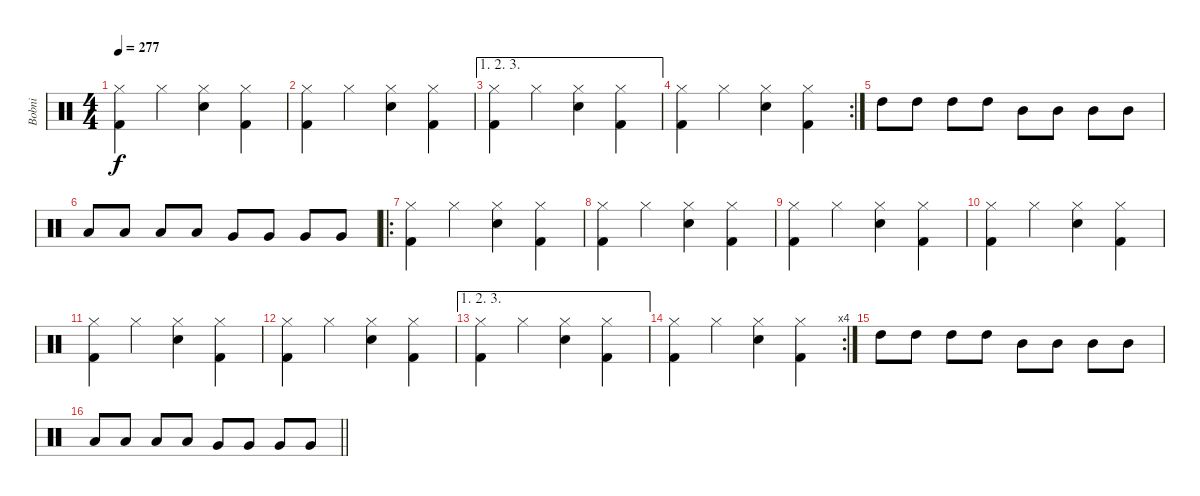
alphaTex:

\track ("Bobni" "Bobni") {instrument percussion}
\staff {score}
\articulation defaults
\ts (4 4)
\tempo 277
\clef neutral
\ks c
("Hi-Hat (closed)" "Kick (hit) 2").4{dy f} "Hi-Hat (closed)".4 ("Hi-Hat (closed)" "Snare (hit) 2").4 ("Hi-Hat (closed)" "Kick (hit) 2").4 |
("Hi-Hat (closed)" "Kick (hit) 2").4 "Hi-Hat (closed)".4 ("Hi-Hat (closed)" "Snare (hit) 2").4 ("Hi-Hat (closed)" "Kick (hit) 2").4 |
\ae (1 2 3)
("Hi-Hat (closed)" "Kick (hit) 2").4 "Hi-Hat (closed)".4 ("Hi-Hat (closed)" "Snare (hit) 2").4 ("Hi-Hat (closed)" "Kick (hit) 2").4 |
\rc 2
("Hi-Hat (closed)" "Kick (hit) 2").4 "Hi-Hat (closed)".4 ("Hi-Hat (closed)" "Snare (hit) 2").4 ("Hi-Hat (closed)" "Kick (hit) 2").4 |
"High Tom (hit)".8 "High Tom (hit)".8 "High Tom (hit)".8 "High Tom (hit)".8 "Mid Tom (hit)".8 "Mid Tom (hit)".8 "Mid Tom (hit)".8 "Mid Tom (hit)".8 |
"Low Tom (hit)".8 "Low Tom (hit)".8 "Low Tom (hit)".8 "Low Tom (hit)".8 "Very Low Tom (hit)".8 "Very Low Tom (hit)".8 "Very Low Tom (hit)".8 "Very Low Tom (hit)".8 |
\ro
("Hi-Hat (closed)" "Kick (hit) 2").4 "Hi-Hat (closed)".4 ("Hi-Hat (closed)" "Snare (hit) 2").4 ("Hi-Hat (closed)" "Kick (hit) 2").4 |
("Hi-Hat (closed)" "Kick (hit) 2").4 "Hi-Hat (closed)".4 ("Hi-Hat (closed)" "Snare (hit) 2").4 ("Hi-Hat (closed)" "Kick (hit) 2").4 |
("Hi-Hat (closed)" "Kick (hit) 2").4 "Hi-Hat (closed)".4 ("Hi-Hat (closed)" "Snare (hit) 2").4 ("Hi-Hat (closed)" "Kick (hit) 2").4 |
("Hi-Hat (closed)" "Kick (hit) 2").4 "Hi-Hat (closed)".4 ("Hi-Hat (closed)" "Snare (hit) 2").4 ("Hi-Hat (closed)" "Kick (hit) 2").4 |
("Hi-Hat (closed)" "Kick (hit) 2").4 "Hi-Hat (closed)".4 ("Hi-Hat (closed)" "Snare (hit) 2").4 ("Hi-Hat (closed)" "Kick (hit) 2").4 |
("Hi-Hat (closed)" "Kick (hit) 2").4 "Hi-Hat (closed)".4 ("Hi-Hat (closed)" "Snare (hit) 2").4 ("Hi-Hat (closed)" "Kick (hit) 2").4 |
\ae (1 2 3)
("Hi-Hat (closed)" "Kick (hit) 2").4 "Hi-Hat (closed)".4 ("Hi-Hat (closed)" "Snare (hit) 2").4 ("Hi-Hat (closed)" "Kick (hit) 2").4 |
\rc 4
("Hi-Hat (closed)" "Kick (hit) 2").4 "Hi-Hat (closed)".4 ("Hi-Hat (closed)" "Snare (hit) 2").4 ("Hi-Hat (closed)" "Kick (hit) 2").4 |
"High Tom (hit)".8 "High Tom (hit)".8 "High Tom (hit)".8 "High Tom (hit)".8 "Mid Tom (hit)".8 "Mid Tom (hit)".8 "Mid Tom (hit)".8 "Mid Tom (hit)".8 |
\barLineRight lightlight "Low Tom (hit)".8 "Low Tom (hit)".8 "Low Tom (hit)".8 "Low Tom (hit)".8 "Very Low Tom (hit)".8 "Very Low Tom (hit)".8 "Very Low Tom (hit)".8 "Very Low Tom (hit)".8
